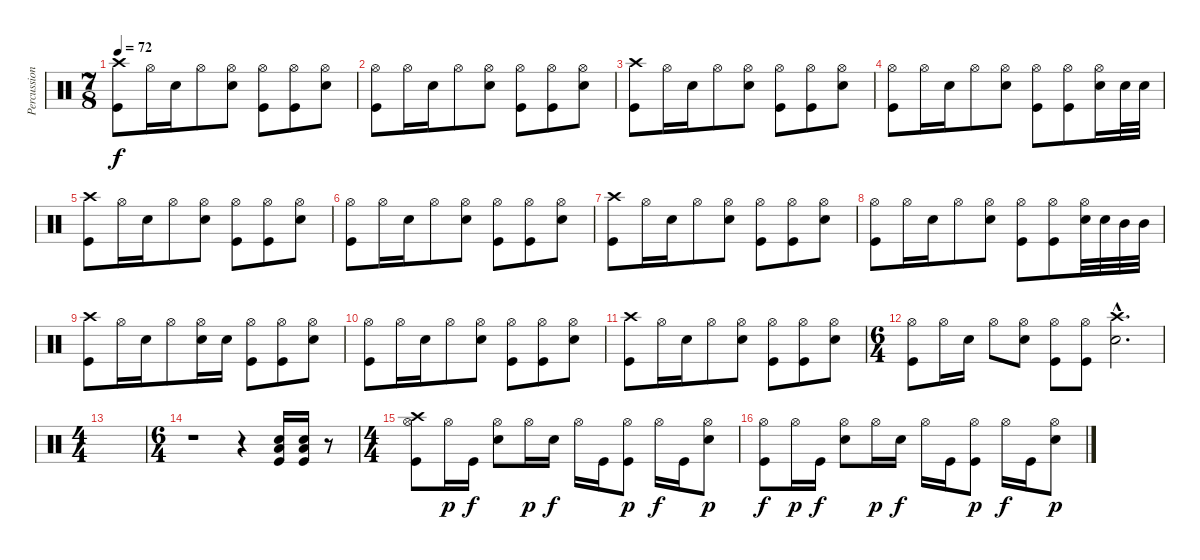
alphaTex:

\track ("Percussion" "Percussion") {instrument percussion}
\staff {score}
\articulation defaults
\ts (7 8)
\tempo 72
\clef neutral
\ks c
("Crash high (hit)" "Kick (hit)").8{dy f} "Hi-Hat (open)".16 "Electric Snare (hit)".16 "Hi-Hat (open)".8 ("Hi-Hat (open)" "Electric Snare (hit)").8 ("Hi-Hat (open)" "Kick (hit)").8 ("Hi-Hat (open)" "Kick (hit)").8 ("Hi-Hat (open)" "Electric Snare (hit)").8 |
("Hi-Hat (open)" "Kick (hit)").8 "Hi-Hat (open)".16 "Electric Snare (hit)".16 "Hi-Hat (open)".8 ("Hi-Hat (open)" "Electric Snare (hit)").8 ("Hi-Hat (open)" "Kick (hit)").8 ("Hi-Hat (open)" "Kick (hit)").8 ("Hi-Hat (open)" "Electric Snare (hit)").8 |
("Crash high (hit)" "Kick (hit)").8 "Hi-Hat (open)".16 "Electric Snare (hit)".16 "Hi-Hat (open)".8 ("Hi-Hat (open)" "Electric Snare (hit)").8 ("Hi-Hat (open)" "Kick (hit)").8 ("Hi-Hat (open)" "Kick (hit)").8 ("Hi-Hat (open)" "Electric Snare (hit)").8 |
("Hi-Hat (open)" "Kick (hit)").8 "Hi-Hat (open)".16 "Electric Snare (hit)".16 "Hi-Hat (open)".8 ("Hi-Hat (open)" "Electric Snare (hit)").8 ("Hi-Hat (open)" "Kick (hit)").8 ("Hi-Hat (open)" "Kick (hit)").8 ("Hi-Hat (open)" "Electric Snare (hit)").16 "Electric Snare (hit)".32 "Electric Snare (hit)".32 |
("Crash high (hit)" "Kick (hit)").8 "Hi-Hat (open)".16 "Electric Snare (hit)".16 "Hi-Hat (open)".8 ("Hi-Hat (open)" "Electric Snare (hit)").8 ("Hi-Hat (open)" "Kick (hit)").8 ("Hi-Hat (open)" "Kick (hit)").8 ("Hi-Hat (open)" "Electric Snare (hit)").8 |
("Hi-Hat (open)" "Kick (hit)").8 "Hi-Hat (open)".16 "Electric Snare (hit)".16 "Hi-Hat (open)".8 ("Hi-Hat (open)" "Electric Snare (hit)").8 ("Hi-Hat (open)" "Kick (hit)").8 ("Hi-Hat (open)" "Kick (hit)").8 ("Hi-Hat (open)" "Electric Snare (hit)").8 |
("Crash high (hit)" "Kick (hit)").8 "Hi-Hat (open)".16 "Electric Snare (hit)".16 "Hi-Hat (open)".8 ("Hi-Hat (open)" "Electric Snare (hit)").8 ("Hi-Hat (open)" "Kick (hit)").8 ("Hi-Hat (open)" "Kick (hit)").8 ("Hi-Hat (open)" "Electric Snare (hit)").8 |
("Hi-Hat (open)" "Kick (hit)").8 "Hi-Hat (open)".16 "Electric Snare (hit)".16 "Hi-Hat (open)".8 ("Hi-Hat (open)" "Electric Snare (hit)").8 ("Hi-Hat (open)" "Kick (hit)").8 ("Hi-Hat (open)" "Kick (hit)").8 ("Hi-Hat (open)" "Electric Snare (hit)").32 "Electric Snare (hit)".32 "Mid Tom (hit)".32 "Mid Tom (hit)".32 |
("Crash high (hit)" "Kick (hit)").8 "Hi-Hat (open)".16 "Electric Snare (hit)".16 "Hi-Hat (open)".8 ("Hi-Hat (open)" "Electric Snare (hit)").16 "Electric Snare (hit)".16 ("Hi-Hat (open)" "Kick (hit)").8 ("Hi-Hat (open)" "Kick (hit)").8 ("Hi-Hat (open)" "Electric Snare (hit)").8 |
("Hi-Hat (open)" "Kick (hit)").8 "Hi-Hat (open)".16 "Electric Snare (hit)".16 "Hi-Hat (open)".8 ("Hi-Hat (open)" "Electric Snare (hit)").8 ("Hi-Hat (open)" "Kick (hit)").8 ("Hi-Hat (open)" "Kick (hit)").8 ("Hi-Hat (open)" "Electric Snare (hit)").8 |
("Crash high (hit)" "Kick (hit)").8 "Hi-Hat (open)".16 "Electric Snare (hit)".16 "Hi-Hat (open)".8 ("Hi-Hat (open)" "Electric Snare (hit)").8 ("Hi-Hat (open)" "Kick (hit)").8 ("Hi-Hat (open)" "Kick (hit)").8 ("Hi-Hat (open)" "Electric Snare (hit)").8 |
\ts (6 4)
("Hi-Hat (open)" "Kick (hit)").8 "Hi-Hat (open)".16 "Electric Snare (hit)".16 "Hi-Hat (open)".8 ("Hi-Hat (open)" "Electric Snare (hit)").8 ("Hi-Hat (open)" "Kick (hit)").8 ("Hi-Hat (open)" "Kick (hit)").8 ("Crash high (hit)"{hac} "Electric Snare (hit)"{hac}).2{d} |
\ts (4 4)
|
\ts (6 4)
r.1 r.4 ("Electric Snare (hit)" "Low Floor Tom (hit)" "Kick (hit)").16 ("Electric Snare (hit)" "Low Floor Tom (hit)" "Kick (hit)").16 r.8 |
\ts (4 4)
("Crash high (hit)" "Hi-Hat (open)" "Kick (hit)").8 "Hi-Hat (open)".16{dy p} "Kick (hit)".16{dy f} ("Hi-Hat (open)" "Electric Snare (hit)").8 "Hi-Hat (open)".16{dy p} "Electric Snare (hit)".16{dy f} "Hi-Hat (open)".16 "Kick (hit)".16 ("Hi-Hat (open)" "Kick (hit)").8{dy p} "Hi-Hat (open)".16{dy f} "Kick (hit)".16 ("Hi-Hat (open)" "Electric Snare (hit)").8{dy p} |
("Hi-Hat (open)" "Kick (hit)").8{dy f} "Hi-Hat (open)".16{dy p} "Kick (hit)".16{dy f} ("Hi-Hat (open)" "Electric Snare (hit)").8 "Hi-Hat (open)".16{dy p} "Electric Snare (hit)".16{dy f} "Hi-Hat (open)".16 "Kick (hit)".16 ("Hi-Hat (open)" "Kick (hit)").8{dy p} "Hi-Hat (open)".16{dy f} "Kick (hit)".16 ("Hi-Hat (open)" "Electric Snare (hit)").8{dy p}
